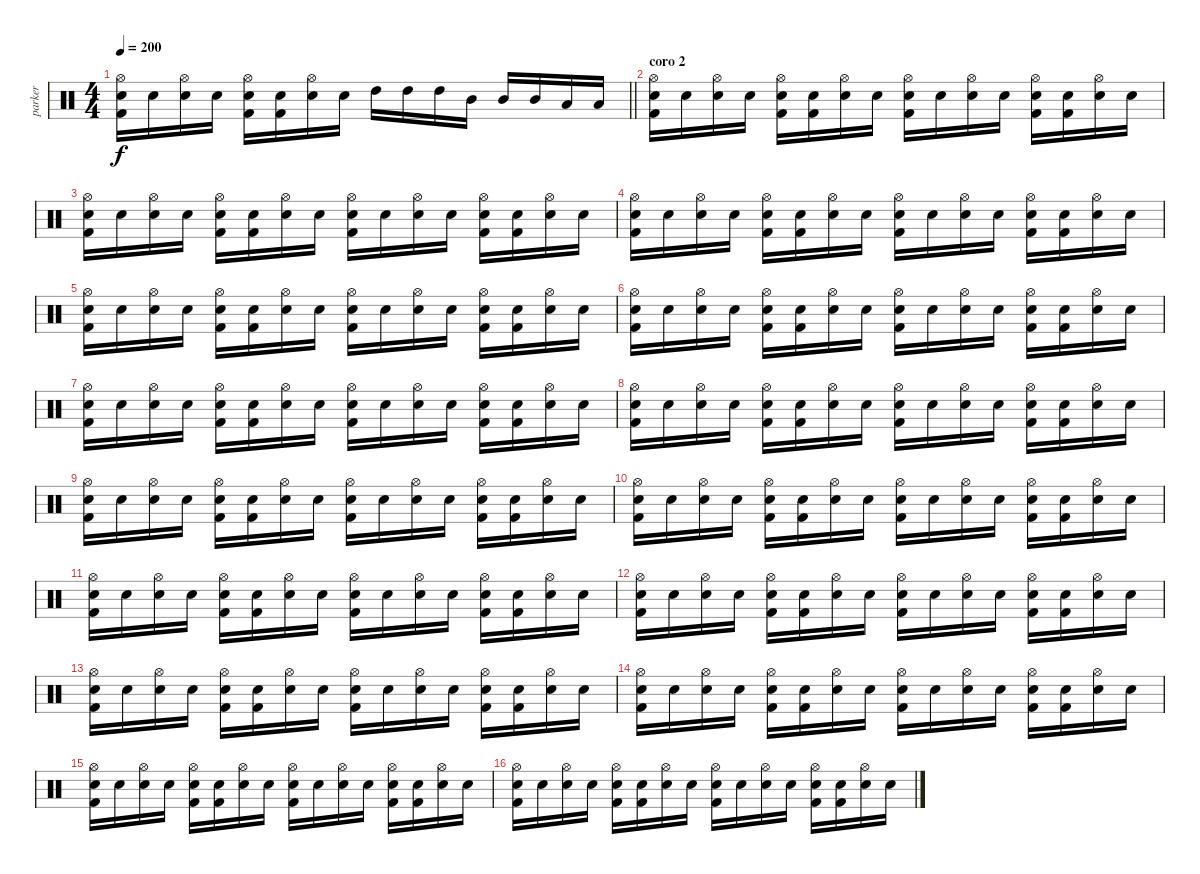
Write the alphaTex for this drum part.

\track ("parker" "parker") {instrument percussion}
\staff {score}
\articulation defaults
\ts (4 4)
\tempo 200
\clef neutral
\barLineRight lightlight
\ks c
("Hi-Hat (open)" "Kick (hit) 2" "Snare (hit)").16{dy f} "Snare (hit)".16 ("Hi-Hat (open)" "Electric Snare (hit)").16 "Snare (hit)".16 ("Hi-Hat (open)" "Kick (hit) 2" "Snare (hit)").16 ("Kick (hit) 2" "Snare (hit)").16 ("Hi-Hat (open)" "Electric Snare (hit)").16 "Snare (hit)".16 "High Tom (hit)".16 "High Tom (hit)".16 "High Tom (hit)".16 "Mid Tom (hit)".16 "Mid Tom (hit)".16 "Mid Tom (hit)".16 "Low Tom (hit)".16 "Low Tom (hit)".16 |
\section ("" "coro 2")
("Hi-Hat (open)" "Kick (hit) 2" "Snare (hit)").16 "Snare (hit)".16 ("Hi-Hat (open)" "Electric Snare (hit)").16 "Snare (hit)".16 ("Hi-Hat (open)" "Kick (hit) 2" "Snare (hit)").16 ("Kick (hit) 2" "Snare (hit)").16 ("Hi-Hat (open)" "Electric Snare (hit)").16 "Snare (hit)".16 ("Hi-Hat (open)" "Kick (hit) 2" "Snare (hit)").16 "Snare (hit)".16 ("Hi-Hat (open)" "Electric Snare (hit)").16 "Snare (hit)".16 ("Hi-Hat (open)" "Kick (hit) 2" "Snare (hit)").16 ("Kick (hit) 2" "Snare (hit)").16 ("Hi-Hat (open)" "Electric Snare (hit)").16 "Snare (hit)".16 |
("Hi-Hat (open)" "Kick (hit) 2" "Snare (hit)").16 "Snare (hit)".16 ("Hi-Hat (open)" "Electric Snare (hit)").16 "Snare (hit)".16 ("Hi-Hat (open)" "Kick (hit) 2" "Snare (hit)").16 ("Kick (hit) 2" "Snare (hit)").16 ("Hi-Hat (open)" "Electric Snare (hit)").16 "Snare (hit)".16 ("Hi-Hat (open)" "Kick (hit) 2" "Snare (hit)").16 "Snare (hit)".16 ("Hi-Hat (open)" "Electric Snare (hit)").16 "Snare (hit)".16 ("Hi-Hat (open)" "Kick (hit) 2" "Snare (hit)").16 ("Kick (hit) 2" "Snare (hit)").16 ("Hi-Hat (open)" "Electric Snare (hit)").16 "Snare (hit)".16 |
("Hi-Hat (open)" "Kick (hit) 2" "Snare (hit)").16 "Snare (hit)".16 ("Hi-Hat (open)" "Electric Snare (hit)").16 "Snare (hit)".16 ("Hi-Hat (open)" "Kick (hit) 2" "Snare (hit)").16 ("Kick (hit) 2" "Snare (hit)").16 ("Hi-Hat (open)" "Electric Snare (hit)").16 "Snare (hit)".16 ("Hi-Hat (open)" "Kick (hit) 2" "Snare (hit)").16 "Snare (hit)".16 ("Hi-Hat (open)" "Electric Snare (hit)").16 "Snare (hit)".16 ("Hi-Hat (open)" "Kick (hit) 2" "Snare (hit)").16 ("Kick (hit) 2" "Snare (hit)").16 ("Hi-Hat (open)" "Electric Snare (hit)").16 "Snare (hit)".16 |
("Hi-Hat (open)" "Kick (hit) 2" "Snare (hit)").16 "Snare (hit)".16 ("Hi-Hat (open)" "Electric Snare (hit)").16 "Snare (hit)".16 ("Hi-Hat (open)" "Kick (hit) 2" "Snare (hit)").16 ("Kick (hit) 2" "Snare (hit)").16 ("Hi-Hat (open)" "Electric Snare (hit)").16 "Snare (hit)".16 ("Hi-Hat (open)" "Kick (hit) 2" "Snare (hit)").16 "Snare (hit)".16 ("Hi-Hat (open)" "Electric Snare (hit)").16 "Snare (hit)".16 ("Hi-Hat (open)" "Kick (hit) 2" "Snare (hit)").16 ("Kick (hit) 2" "Snare (hit)").16 ("Hi-Hat (open)" "Electric Snare (hit)").16 "Snare (hit)".16 |
("Hi-Hat (open)" "Kick (hit) 2" "Snare (hit)").16 "Snare (hit)".16 ("Hi-Hat (open)" "Electric Snare (hit)").16 "Snare (hit)".16 ("Hi-Hat (open)" "Kick (hit) 2" "Snare (hit)").16 ("Kick (hit) 2" "Snare (hit)").16 ("Hi-Hat (open)" "Electric Snare (hit)").16 "Snare (hit)".16 ("Hi-Hat (open)" "Kick (hit) 2" "Snare (hit)").16 "Snare (hit)".16 ("Hi-Hat (open)" "Electric Snare (hit)").16 "Snare (hit)".16 ("Hi-Hat (open)" "Kick (hit) 2" "Snare (hit)").16 ("Kick (hit) 2" "Snare (hit)").16 ("Hi-Hat (open)" "Electric Snare (hit)").16 "Snare (hit)".16 |
("Hi-Hat (open)" "Kick (hit) 2" "Snare (hit)").16 "Snare (hit)".16 ("Hi-Hat (open)" "Electric Snare (hit)").16 "Snare (hit)".16 ("Hi-Hat (open)" "Kick (hit) 2" "Snare (hit)").16 ("Kick (hit) 2" "Snare (hit)").16 ("Hi-Hat (open)" "Electric Snare (hit)").16 "Snare (hit)".16 ("Hi-Hat (open)" "Kick (hit) 2" "Snare (hit)").16 "Snare (hit)".16 ("Hi-Hat (open)" "Electric Snare (hit)").16 "Snare (hit)".16 ("Hi-Hat (open)" "Kick (hit) 2" "Snare (hit)").16 ("Kick (hit) 2" "Snare (hit)").16 ("Hi-Hat (open)" "Electric Snare (hit)").16 "Snare (hit)".16 |
("Hi-Hat (open)" "Kick (hit) 2" "Snare (hit)").16 "Snare (hit)".16 ("Hi-Hat (open)" "Electric Snare (hit)").16 "Snare (hit)".16 ("Hi-Hat (open)" "Kick (hit) 2" "Snare (hit)").16 ("Kick (hit) 2" "Snare (hit)").16 ("Hi-Hat (open)" "Electric Snare (hit)").16 "Snare (hit)".16 ("Hi-Hat (open)" "Kick (hit) 2" "Snare (hit)").16 "Snare (hit)".16 ("Hi-Hat (open)" "Electric Snare (hit)").16 "Snare (hit)".16 ("Hi-Hat (open)" "Kick (hit) 2" "Snare (hit)").16 ("Kick (hit) 2" "Snare (hit)").16 ("Hi-Hat (open)" "Electric Snare (hit)").16 "Snare (hit)".16 |
("Hi-Hat (open)" "Kick (hit) 2" "Snare (hit)").16 "Snare (hit)".16 ("Hi-Hat (open)" "Electric Snare (hit)").16 "Snare (hit)".16 ("Hi-Hat (open)" "Kick (hit) 2" "Snare (hit)").16 ("Kick (hit) 2" "Snare (hit)").16 ("Hi-Hat (open)" "Electric Snare (hit)").16 "Snare (hit)".16 ("Hi-Hat (open)" "Kick (hit) 2" "Snare (hit)").16 "Snare (hit)".16 ("Hi-Hat (open)" "Electric Snare (hit)").16 "Snare (hit)".16 ("Hi-Hat (open)" "Kick (hit) 2" "Snare (hit)").16 ("Kick (hit) 2" "Snare (hit)").16 ("Hi-Hat (open)" "Electric Snare (hit)").16 "Snare (hit)".16 |
("Hi-Hat (open)" "Kick (hit) 2" "Snare (hit)").16 "Snare (hit)".16 ("Hi-Hat (open)" "Electric Snare (hit)").16 "Snare (hit)".16 ("Hi-Hat (open)" "Kick (hit) 2" "Snare (hit)").16 ("Kick (hit) 2" "Snare (hit)").16 ("Hi-Hat (open)" "Electric Snare (hit)").16 "Snare (hit)".16 ("Hi-Hat (open)" "Kick (hit) 2" "Snare (hit)").16 "Snare (hit)".16 ("Hi-Hat (open)" "Electric Snare (hit)").16 "Snare (hit)".16 ("Hi-Hat (open)" "Kick (hit) 2" "Snare (hit)").16 ("Kick (hit) 2" "Snare (hit)").16 ("Hi-Hat (open)" "Electric Snare (hit)").16 "Snare (hit)".16 |
("Hi-Hat (open)" "Kick (hit) 2" "Snare (hit)").16 "Snare (hit)".16 ("Hi-Hat (open)" "Electric Snare (hit)").16 "Snare (hit)".16 ("Hi-Hat (open)" "Kick (hit) 2" "Snare (hit)").16 ("Kick (hit) 2" "Snare (hit)").16 ("Hi-Hat (open)" "Electric Snare (hit)").16 "Snare (hit)".16 ("Hi-Hat (open)" "Kick (hit) 2" "Snare (hit)").16 "Snare (hit)".16 ("Hi-Hat (open)" "Electric Snare (hit)").16 "Snare (hit)".16 ("Hi-Hat (open)" "Kick (hit) 2" "Snare (hit)").16 ("Kick (hit) 2" "Snare (hit)").16 ("Hi-Hat (open)" "Electric Snare (hit)").16 "Snare (hit)".16 |
("Hi-Hat (open)" "Kick (hit) 2" "Snare (hit)").16 "Snare (hit)".16 ("Hi-Hat (open)" "Electric Snare (hit)").16 "Snare (hit)".16 ("Hi-Hat (open)" "Kick (hit) 2" "Snare (hit)").16 ("Kick (hit) 2" "Snare (hit)").16 ("Hi-Hat (open)" "Electric Snare (hit)").16 "Snare (hit)".16 ("Hi-Hat (open)" "Kick (hit) 2" "Snare (hit)").16 "Snare (hit)".16 ("Hi-Hat (open)" "Electric Snare (hit)").16 "Snare (hit)".16 ("Hi-Hat (open)" "Kick (hit) 2" "Snare (hit)").16 ("Kick (hit) 2" "Snare (hit)").16 ("Hi-Hat (open)" "Electric Snare (hit)").16 "Snare (hit)".16 |
("Hi-Hat (open)" "Kick (hit) 2" "Snare (hit)").16 "Snare (hit)".16 ("Hi-Hat (open)" "Electric Snare (hit)").16 "Snare (hit)".16 ("Hi-Hat (open)" "Kick (hit) 2" "Snare (hit)").16 ("Kick (hit) 2" "Snare (hit)").16 ("Hi-Hat (open)" "Electric Snare (hit)").16 "Snare (hit)".16 ("Hi-Hat (open)" "Kick (hit) 2" "Snare (hit)").16 "Snare (hit)".16 ("Hi-Hat (open)" "Electric Snare (hit)").16 "Snare (hit)".16 ("Hi-Hat (open)" "Kick (hit) 2" "Snare (hit)").16 ("Kick (hit) 2" "Snare (hit)").16 ("Hi-Hat (open)" "Electric Snare (hit)").16 "Snare (hit)".16 |
("Hi-Hat (open)" "Kick (hit) 2" "Snare (hit)").16 "Snare (hit)".16 ("Hi-Hat (open)" "Electric Snare (hit)").16 "Snare (hit)".16 ("Hi-Hat (open)" "Kick (hit) 2" "Snare (hit)").16 ("Kick (hit) 2" "Snare (hit)").16 ("Hi-Hat (open)" "Electric Snare (hit)").16 "Snare (hit)".16 ("Hi-Hat (open)" "Kick (hit) 2" "Snare (hit)").16 "Snare (hit)".16 ("Hi-Hat (open)" "Electric Snare (hit)").16 "Snare (hit)".16 ("Hi-Hat (open)" "Kick (hit) 2" "Snare (hit)").16 ("Kick (hit) 2" "Snare (hit)").16 ("Hi-Hat (open)" "Electric Snare (hit)").16 "Snare (hit)".16 |
("Hi-Hat (open)" "Kick (hit) 2" "Snare (hit)").16 "Snare (hit)".16 ("Hi-Hat (open)" "Electric Snare (hit)").16 "Snare (hit)".16 ("Hi-Hat (open)" "Kick (hit) 2" "Snare (hit)").16 ("Kick (hit) 2" "Snare (hit)").16 ("Hi-Hat (open)" "Electric Snare (hit)").16 "Snare (hit)".16 ("Hi-Hat (open)" "Kick (hit) 2" "Snare (hit)").16 "Snare (hit)".16 ("Hi-Hat (open)" "Electric Snare (hit)").16 "Snare (hit)".16 ("Hi-Hat (open)" "Kick (hit) 2" "Snare (hit)").16 ("Kick (hit) 2" "Snare (hit)").16 ("Hi-Hat (open)" "Electric Snare (hit)").16 "Snare (hit)".16 |
("Hi-Hat (open)" "Kick (hit) 2" "Snare (hit)").16 "Snare (hit)".16 ("Hi-Hat (open)" "Electric Snare (hit)").16 "Snare (hit)".16 ("Hi-Hat (open)" "Kick (hit) 2" "Snare (hit)").16 ("Kick (hit) 2" "Snare (hit)").16 ("Hi-Hat (open)" "Electric Snare (hit)").16 "Snare (hit)".16 ("Hi-Hat (open)" "Kick (hit) 2" "Snare (hit)").16 "Snare (hit)".16 ("Hi-Hat (open)" "Electric Snare (hit)").16 "Snare (hit)".16 ("Hi-Hat (open)" "Kick (hit) 2" "Snare (hit)").16 ("Kick (hit) 2" "Snare (hit)").16 ("Hi-Hat (open)" "Electric Snare (hit)").16 "Snare (hit)".16
